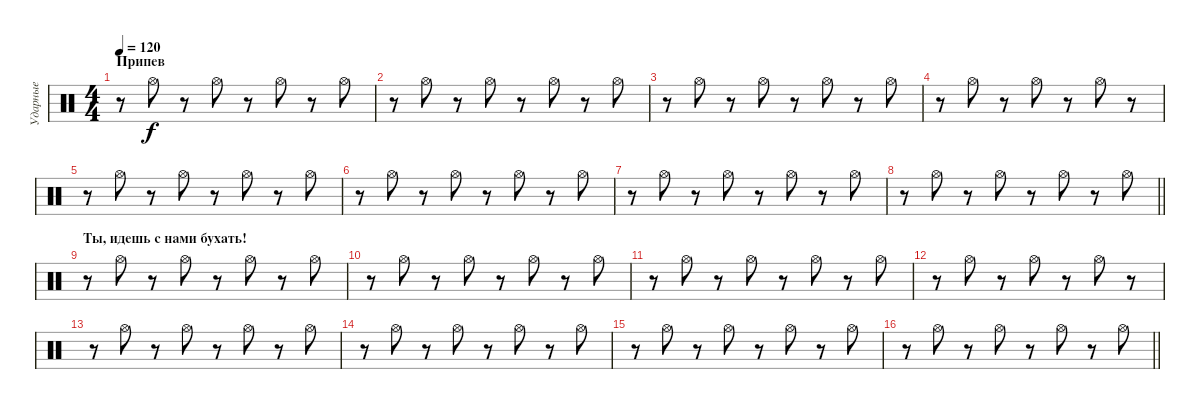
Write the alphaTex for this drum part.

\track ("Ударные" "Ударные") {instrument percussion}
\staff {score}
\articulation defaults
\ts (4 4)
\section ("" "Припев")
\tempo 120
\clef neutral
\ks c
r.8{dy f} "Hi-Hat (open)".8 r.8 "Hi-Hat (open)".8 r.8 "Hi-Hat (open)".8 r.8 "Hi-Hat (open)".8 |
r.8 "Hi-Hat (open)".8 r.8 "Hi-Hat (open)".8 r.8 "Hi-Hat (open)".8 r.8 "Hi-Hat (open)".8 |
r.8 "Hi-Hat (open)".8 r.8 "Hi-Hat (open)".8 r.8 "Hi-Hat (open)".8 r.8 "Hi-Hat (open)".8 |
r.8 "Hi-Hat (open)".8 r.8 "Hi-Hat (open)".8 r.8 "Hi-Hat (open)".8 r.8 |
r.8 "Hi-Hat (open)".8 r.8 "Hi-Hat (open)".8 r.8 "Hi-Hat (open)".8 r.8 "Hi-Hat (open)".8 |
r.8 "Hi-Hat (open)".8 r.8 "Hi-Hat (open)".8 r.8 "Hi-Hat (open)".8 r.8 "Hi-Hat (open)".8 |
r.8 "Hi-Hat (open)".8 r.8 "Hi-Hat (open)".8 r.8 "Hi-Hat (open)".8 r.8 "Hi-Hat (open)".8 |
\barLineRight lightlight
r.8 "Hi-Hat (open)".8 r.8 "Hi-Hat (open)".8 r.8 "Hi-Hat (open)".8 r.8 "Hi-Hat (open)".8 |
\section ("" "Ты, идешь с нами бухать!")
r.8 "Hi-Hat (open)".8 r.8 "Hi-Hat (open)".8 r.8 "Hi-Hat (open)".8 r.8 "Hi-Hat (open)".8 |
r.8 "Hi-Hat (open)".8 r.8 "Hi-Hat (open)".8 r.8 "Hi-Hat (open)".8 r.8 "Hi-Hat (open)".8 |
r.8 "Hi-Hat (open)".8 r.8 "Hi-Hat (open)".8 r.8 "Hi-Hat (open)".8 r.8 "Hi-Hat (open)".8 |
r.8 "Hi-Hat (open)".8 r.8 "Hi-Hat (open)".8 r.8 "Hi-Hat (open)".8 r.8 |
r.8 "Hi-Hat (open)".8 r.8 "Hi-Hat (open)".8 r.8 "Hi-Hat (open)".8 r.8 "Hi-Hat (open)".8 |
r.8 "Hi-Hat (open)".8 r.8 "Hi-Hat (open)".8 r.8 "Hi-Hat (open)".8 r.8 "Hi-Hat (open)".8 |
r.8 "Hi-Hat (open)".8 r.8 "Hi-Hat (open)".8 r.8 "Hi-Hat (open)".8 r.8 "Hi-Hat (open)".8 |
\barLineRight lightlight
r.8 "Hi-Hat (open)".8 r.8 "Hi-Hat (open)".8 r.8 "Hi-Hat (open)".8 r.8 "Hi-Hat (open)".8
